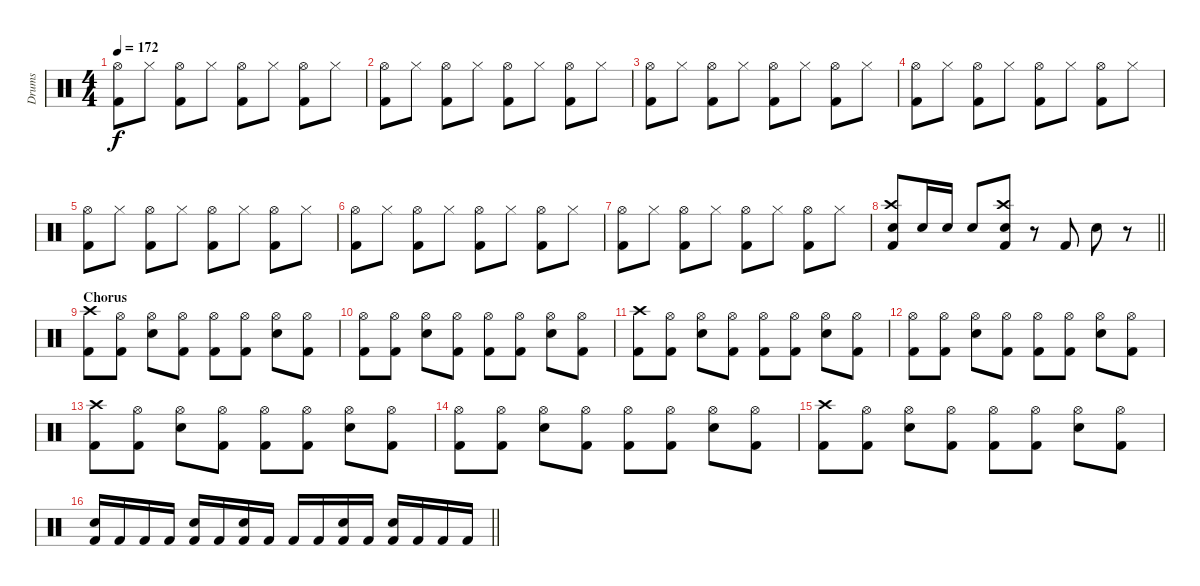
\track ("Drums" "Drums") {instrument percussion}
\staff {score}
\articulation defaults
\ts (4 4)
\tempo 172
\clef neutral
\ks c
("Kick (hit) 2" "Hi-Hat (open)").8{dy f} "Hi-Hat (closed)".8 ("Hi-Hat (open)" "Kick (hit) 2").8 "Hi-Hat (closed)".8 ("Hi-Hat (open)" "Kick (hit) 2").8 "Hi-Hat (closed)".8 ("Hi-Hat (open)" "Kick (hit) 2").8 "Hi-Hat (closed)".8 |
("Kick (hit) 2" "Hi-Hat (open)").8 "Hi-Hat (closed)".8 ("Hi-Hat (open)" "Kick (hit) 2").8 "Hi-Hat (closed)".8 ("Hi-Hat (open)" "Kick (hit) 2").8 "Hi-Hat (closed)".8 ("Hi-Hat (open)" "Kick (hit) 2").8 "Hi-Hat (closed)".8 |
("Kick (hit) 2" "Hi-Hat (open)").8 "Hi-Hat (closed)".8 ("Hi-Hat (open)" "Kick (hit) 2").8 "Hi-Hat (closed)".8 ("Hi-Hat (open)" "Kick (hit) 2").8 "Hi-Hat (closed)".8 ("Hi-Hat (open)" "Kick (hit) 2").8 "Hi-Hat (closed)".8 |
("Kick (hit) 2" "Hi-Hat (open)").8 "Hi-Hat (closed)".8 ("Hi-Hat (open)" "Kick (hit) 2").8 "Hi-Hat (closed)".8 ("Hi-Hat (open)" "Kick (hit) 2").8 "Hi-Hat (closed)".8 ("Hi-Hat (open)" "Kick (hit) 2").8 "Hi-Hat (closed)".8 |
("Kick (hit) 2" "Hi-Hat (open)").8 "Hi-Hat (closed)".8 ("Hi-Hat (open)" "Kick (hit) 2").8 "Hi-Hat (closed)".8 ("Hi-Hat (open)" "Kick (hit) 2").8 "Hi-Hat (closed)".8 ("Hi-Hat (open)" "Kick (hit) 2").8 "Hi-Hat (closed)".8 |
("Kick (hit) 2" "Hi-Hat (open)").8 "Hi-Hat (closed)".8 ("Hi-Hat (open)" "Kick (hit) 2").8 "Hi-Hat (closed)".8 ("Hi-Hat (open)" "Kick (hit) 2").8 "Hi-Hat (closed)".8 ("Hi-Hat (open)" "Kick (hit) 2").8 "Hi-Hat (closed)".8 |
("Kick (hit) 2" "Hi-Hat (open)").8 "Hi-Hat (closed)".8 ("Hi-Hat (open)" "Kick (hit) 2").8 "Hi-Hat (closed)".8 ("Hi-Hat (open)" "Kick (hit) 2").8 "Hi-Hat (closed)".8 ("Hi-Hat (open)" "Kick (hit) 2").8 "Hi-Hat (closed)".8 |
\barLineRight lightlight
("Crash high (hit)" "Kick (hit) 2" "Electric Snare (hit)").8 "Electric Snare (hit)".16 "Electric Snare (hit)".16 "Electric Snare (hit)".8 ("Crash high (hit)" "Kick (hit) 2" "Electric Snare (hit)").8 r.8 "Kick (hit) 2".8 "Electric Snare (hit)".8 r.8 |
\section ("" "Chorus")
("Kick (hit) 2" "Crash high (hit)").8 ("Kick (hit) 2" "Hi-Hat (open)").8 ("Electric Snare (hit)" "Hi-Hat (open)").8 ("Kick (hit) 2" "Hi-Hat (open)").8 ("Kick (hit) 2" "Hi-Hat (open)").8 ("Kick (hit) 2" "Hi-Hat (open)").8 ("Electric Snare (hit)" "Hi-Hat (open)").8 ("Kick (hit) 2" "Hi-Hat (open)").8 |
("Kick (hit) 2" "Hi-Hat (open)").8 ("Kick (hit) 2" "Hi-Hat (open)").8 ("Electric Snare (hit)" "Hi-Hat (open)").8 ("Kick (hit) 2" "Hi-Hat (open)").8 ("Kick (hit) 2" "Hi-Hat (open)").8 ("Kick (hit) 2" "Hi-Hat (open)").8 ("Electric Snare (hit)" "Hi-Hat (open)").8 ("Kick (hit) 2" "Hi-Hat (open)").8 |
("Kick (hit) 2" "Crash high (hit)").8 ("Kick (hit) 2" "Hi-Hat (open)").8 ("Electric Snare (hit)" "Hi-Hat (open)").8 ("Kick (hit) 2" "Hi-Hat (open)").8 ("Kick (hit) 2" "Hi-Hat (open)").8 ("Kick (hit) 2" "Hi-Hat (open)").8 ("Electric Snare (hit)" "Hi-Hat (open)").8 ("Kick (hit) 2" "Hi-Hat (open)").8 |
("Kick (hit) 2" "Hi-Hat (open)").8 ("Kick (hit) 2" "Hi-Hat (open)").8 ("Electric Snare (hit)" "Hi-Hat (open)").8 ("Kick (hit) 2" "Hi-Hat (open)").8 ("Kick (hit) 2" "Hi-Hat (open)").8 ("Kick (hit) 2" "Hi-Hat (open)").8 ("Electric Snare (hit)" "Hi-Hat (open)").8 ("Kick (hit) 2" "Hi-Hat (open)").8 |
("Kick (hit) 2" "Crash high (hit)").8 ("Kick (hit) 2" "Hi-Hat (open)").8 ("Electric Snare (hit)" "Hi-Hat (open)").8 ("Kick (hit) 2" "Hi-Hat (open)").8 ("Kick (hit) 2" "Hi-Hat (open)").8 ("Kick (hit) 2" "Hi-Hat (open)").8 ("Electric Snare (hit)" "Hi-Hat (open)").8 ("Kick (hit) 2" "Hi-Hat (open)").8 |
("Kick (hit) 2" "Hi-Hat (open)").8 ("Kick (hit) 2" "Hi-Hat (open)").8 ("Electric Snare (hit)" "Hi-Hat (open)").8 ("Kick (hit) 2" "Hi-Hat (open)").8 ("Kick (hit) 2" "Hi-Hat (open)").8 ("Kick (hit) 2" "Hi-Hat (open)").8 ("Electric Snare (hit)" "Hi-Hat (open)").8 ("Kick (hit) 2" "Hi-Hat (open)").8 |
("Kick (hit) 2" "Crash high (hit)").8 ("Kick (hit) 2" "Hi-Hat (open)").8 ("Electric Snare (hit)" "Hi-Hat (open)").8 ("Kick (hit) 2" "Hi-Hat (open)").8 ("Kick (hit) 2" "Hi-Hat (open)").8 ("Kick (hit) 2" "Hi-Hat (open)").8 ("Electric Snare (hit)" "Hi-Hat (open)").8 ("Kick (hit) 2" "Hi-Hat (open)").8 |
\barLineRight lightlight
("Kick (hit) 2" "Electric Snare (hit)").16 "Kick (hit) 2".16 "Kick (hit) 2".16 "Kick (hit) 2".16 ("Kick (hit) 2" "Electric Snare (hit)").16 "Kick (hit) 2".16 ("Kick (hit) 2" "Electric Snare (hit)").16 "Kick (hit) 2".16 "Kick (hit) 2".16 "Kick (hit) 2".16 ("Kick (hit) 2" "Electric Snare (hit)").16 "Kick (hit) 2".16 ("Kick (hit) 2" "Electric Snare (hit)").16 "Kick (hit) 2".16 "Kick (hit) 2".16 "Kick (hit) 2".16
